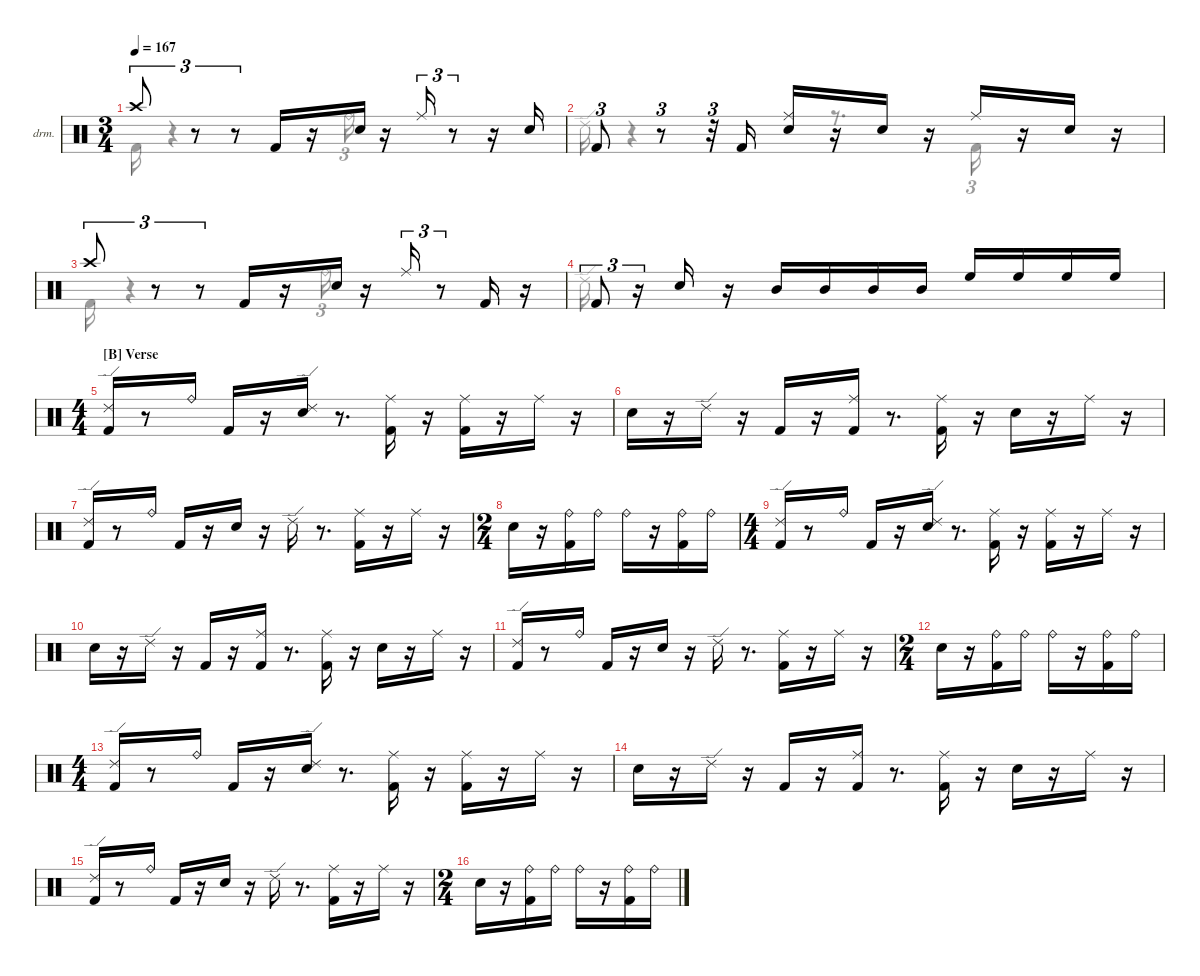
\hideDynamics
\bracketExtendMode nobrackets
\firstSystemTrackNameOrientation horizontal
\otherSystemsTrackNameOrientation horizontal
\track ("Drums" "drm.") {instrument percussion}
\staff {score}
\articulation defaults
\voice
\ts (3 4)
\tempo 167
\clef neutral
\ks aminor "Crash high (hit)"{acc #}.8{tu (3 2) dy fff beam Up}
r.8{tu (3 2) beam Up} r.8{tu (3 2) beam Up} "Kick (hit) 2".16{dy ff beam Up} r.16{beam Up} "Snare (hit) 2".16{beam Up} r.16{beam Up} "Ride (middle)"{acc #}.16{tu (3 2) dy fff beam Up} r.8{tu (3 2) beam Up} r.16{beam Up} "Snare (hit) 2".16{dy ff beam Up} |
"Kick (hit) 2".8{tu (3 2) beam Up} r.8{tu (3 2) beam Up} r.32{tu (3 2) beam Up} "Kick (hit) 2".16{beam Up} ("Snare (hit) 2" "Ride (middle)"{acc #}).16{beam Up} r.16{beam Up} "Snare (hit) 2".16{dy mp beam Up} r.16{beam Up} "Ride (middle)"{acc #}.16{dy fff beam Up} r.16{beam Up} "Snare (hit) 2".16{dy ff beam Up} r.16{beam Up} |
"Crash high (hit)"{acc #}.8{tu (3 2) dy fff beam Up} r.8{tu (3 2) beam Up} r.8{tu (3 2) beam Up} "Kick (hit) 2".16{dy ff beam Up} r.16{beam Up} "Snare (hit) 2".16{beam Up} r.16{beam Up} "Ride (middle)"{acc #}.16{tu (3 2) dy fff beam Up} r.8{tu (3 2) beam Up} "Kick (hit) 2".16{dy mf beam Up} r.16{beam Up} |
"Kick (hit) 2".8{tu (3 2) dy fff beam Up} r.16{tu (3 2) beam Up} "Snare (hit) 2".16{dy ff beam Up} r.16{beam Up} "Mid Tom (hit)".16{dy fff beam Up} "Mid Tom (hit)".16{dy mf beam Up} "Mid Tom (hit)".16{dy f beam Up} "Mid Tom (hit)".16{dy mp beam Up} "High Floor Tom (hit)".16{dy fff beam Up} "High Floor Tom (hit)".16{dy f beam Up} "High Floor Tom (hit)".16{dy ff beam Up} "High Floor Tom (hit)".16{dy f beam Up} |
\ts (4 4)
\section ("B" "Verse")
("Kick (hit) 2" "Ride (edge) 2").16{dy ff beam Up} r.8{beam Up} "Ride (bell)".16{dy mf beam Down} "Kick (hit) 2".16{dy ff beam Up} r.16{beam Up} ("Snare (hit) 2" "Ride (edge) 2").16{beam Down} r.8{d beam Down} ("Kick (hit) 2" "Ride (middle)"{acc #}).16{dy mf beam Down} r.16{beam Down} ("Kick (hit) 2" "Ride (middle)"{acc #}).16{dy ff beam Down} r.16{beam Down} "Ride (middle)"{acc #}.16{dy mp beam Down} r.16{beam Down} |
"Snare (hit) 2".16{dy ff beam Down} r.16{beam Down} "Ride (edge) 2".16{dy f beam Down} r.16{beam Down} "Kick (hit) 2".16{dy mf beam Up} r.16{beam Up} ("Kick (hit) 2" "Ride (middle)"{acc #}).16{dy ff beam Down} r.8{d beam Down} ("Kick (hit) 2" "Ride (middle)"{acc #}).16{beam Down} r.16{beam Down} "Snare (hit) 2".16{beam Down} r.16{beam Down} "Ride (middle)"{acc #}.16{beam Down} r.16{beam Down} |
("Kick (hit) 2" "Ride (edge) 2").16{beam Up} r.8{beam Up} "Ride (bell)".16{dy mf beam Down} "Kick (hit) 2".16{dy ff beam Up} r.16{beam Up} "Snare (hit) 2".16{beam Down} r.16{beam Down} "Ride (edge) 2".16{beam Down} r.8{d beam Down} ("Kick (hit) 2" "Ride (middle)"{acc #}).16{dy fff beam Down} r.16{beam Down} "Ride (middle)"{acc #}.16{dy mp beam Down} r.16{beam Down} |
\ts (2 4)
"Snare (hit) 2".16{dy ff beam Down} r.16{beam Down} ("Ride (bell)" "Kick (hit) 2").16{dy f beam Down} "Ride (bell)".16{dy mp beam Down} "Ride (bell)".16{dy mf beam Down} r.16{beam Down} ("Ride (bell)" "Kick (hit) 2").16{dy f beam Down} "Ride (bell)".16{dy mp beam Down} |
\ts (4 4)
("Kick (hit) 2" "Ride (edge) 2").16{dy ff beam Up} r.8{beam Up} "Ride (bell)".16{dy mf beam Down} "Kick (hit) 2".16{dy ff beam Up} r.16{beam Up} ("Snare (hit) 2" "Ride (edge) 2").16{beam Down} r.8{d beam Down} ("Ride (middle)"{acc #} "Kick (hit) 2").16{dy mf beam Down} r.16{beam Down} ("Ride (middle)"{acc #} "Kick (hit) 2").16{dy ff beam Down} r.16{beam Down} "Ride (middle)"{acc #}.16{dy mp beam Down} r.16{beam Down} |
"Snare (hit) 2".16{dy ff beam Down} r.16{beam Down} "Ride (edge) 2".16{dy f beam Down} r.16{beam Down} "Kick (hit) 2".16{dy mf beam Up} r.16{beam Up} ("Kick (hit) 2" "Ride (middle)"{acc #}).16{dy ff beam Down} r.8{d beam Down} ("Kick (hit) 2" "Ride (middle)"{acc #}).16{beam Down} r.16{beam Down} "Snare (hit) 2".16{beam Down} r.16{beam Down} "Ride (middle)"{acc #}.16{beam Down} r.16{beam Down} |
("Kick (hit) 2" "Ride (edge) 2").16{beam Up} r.8{beam Up} "Ride (bell)".16{dy mf beam Down} "Kick (hit) 2".16{dy ff beam Up} r.16{beam Up} "Snare (hit) 2".16{beam Down} r.16{beam Down} "Ride (edge) 2".16{beam Down} r.8{d beam Down} ("Kick (hit) 2" "Ride (middle)"{acc #}).16{beam Down} r.16{beam Down} "Ride (middle)"{acc #}.16{dy mp beam Down} r.16{beam Down} |
\ts (2 4)
"Snare (hit) 2".16{dy ff beam Down} r.16{beam Down} ("Kick (hit) 2" "Ride (bell)").16{dy f beam Down} "Ride (bell)".16{dy mp beam Down} "Ride (bell)".16{dy mf beam Down} r.16{beam Down} ("Kick (hit) 2" "Ride (bell)").16{dy f beam Down} "Ride (bell)".16{dy mp beam Down} |
\ts (4 4)
("Kick (hit) 2" "Ride (edge) 2").16{dy ff beam Up} r.8{beam Up} "Ride (bell)".16{dy mf beam Down} "Kick (hit) 2".16{dy ff beam Up} r.16{beam Up} ("Snare (hit) 2" "Ride (edge) 2").16{beam Down} r.8{d beam Down} ("Kick (hit) 2" "Ride (middle)"{acc #}).16{dy mf beam Down} r.16{beam Down} ("Kick (hit) 2" "Ride (middle)"{acc #}).16{dy fff beam Down} r.16{beam Down} "Ride (middle)"{acc #}.16{dy mp beam Down} r.16{beam Down} |
"Snare (hit) 2".16{dy ff beam Down} r.16{beam Down} "Ride (edge) 2".16{dy f beam Down} r.16{beam Down} "Kick (hit) 2".16{dy mf beam Up} r.16{beam Up} ("Kick (hit) 2" "Ride (middle)"{acc #}).16{dy ff beam Down} r.8{d beam Down} ("Kick (hit) 2" "Ride (middle)"{acc #}).16{beam Down} r.16{beam Down} "Snare (hit) 2".16{beam Down} r.16{beam Down} "Ride (middle)"{acc #}.16{beam Down} r.16{beam Down} |
("Ride (edge) 2" "Kick (hit) 2").16{beam Up} r.8{beam Up} "Ride (bell)".16{dy mf beam Down} "Kick (hit) 2".16{dy ff beam Up} r.16{beam Up} "Snare (hit) 2".16{beam Down} r.16{beam Down} "Ride (edge) 2".16{beam Down} r.8{d beam Down} ("Kick (hit) 2" "Ride (middle)"{acc #}).16{dy fff beam Down} r.16{beam Down} "Ride (middle)"{acc #}.16{dy mp beam Down} r.16{beam Down} |
\ts (2 4)
"Snare (hit) 2".16{dy ff beam Down} r.16{beam Down} ("Ride (bell)" "Kick (hit) 2").16{dy f beam Down} "Ride (bell)".16{dy mp beam Down} "Ride (bell)".16{dy mf beam Down} r.16{beam Down} ("Kick (hit) 2" "Ride (bell)").16{dy f beam Down} "Ride (bell)".16{dy mp beam Down}
\voice
\clef neutral
\ottava regular
\simile none
\ks aminor "Kick (hit) 2".16{dy ff beam Down}
r.4{beam Down} r.16{beam Down} "Ride (bell)".16{tu (3 2) dy mp beam Down} |
"Ride (edge) 2".16{dy ff beam Down} r.4{beam Down} r.8{d beam Down} "Kick (hit) 2".16{tu (3 2) beam Down} |
"Kick (hit) 2".16{beam Down} r.4{beam Down} r.16{beam Down} "Ride (bell)".16{tu (3 2) dy mp beam Down} |
"Ride (edge) 2".16{dy ff beam Down} |
|
|
|
|
|
|
|
|
|
|
|
